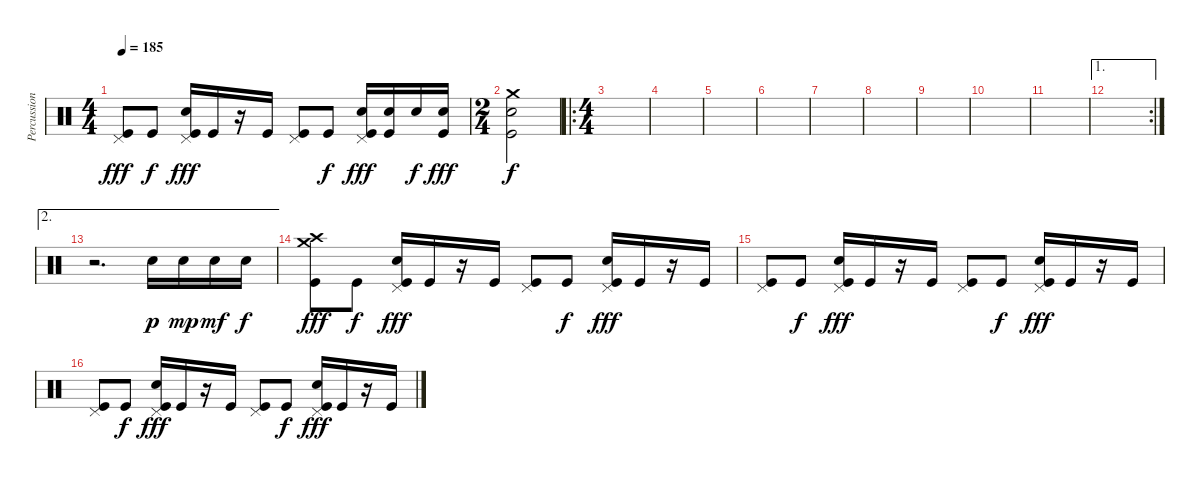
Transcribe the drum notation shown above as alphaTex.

\track ("Percussions" "Percussion") {instrument percussion}
\staff {score}
\articulation defaults
\ts (4 4)
\tempo 185
\clef neutral
\ks c
("Pedal Hi-Hat (hit)" "Kick (hit)").8{dy fff} "Kick (hit)".8{dy f} ("Pedal Hi-Hat (hit)" "Electric Snare (hit)" "Kick (hit)").16{dy fff} "Kick (hit)".16 r.16 "Kick (hit)".16 ("Pedal Hi-Hat (hit)" "Kick (hit)").8 "Kick (hit)".8{dy f} ("Pedal Hi-Hat (hit)" "Electric Snare (hit)" "Kick (hit)").16{dy fff} ("Electric Snare (hit)" "Kick (hit)").16 "Electric Snare (hit)".16{dy f} ("Electric Snare (hit)" "Kick (hit)").16{dy fff} |
\ts (2 4)
("Crash medium (hit)" "Electric Snare (hit)" "Kick (hit)").2{dy f} |
\ro
\ts (4 4)
\section ("" "")
|
|
|
|
|
|
|
|
|
\ae 1
\rc 2
|
\ae 2
r.2{d} "Electric Snare (hit)".16{dy p} "Electric Snare (hit)".16{dy mp} "Electric Snare (hit)".16{dy mf} "Electric Snare (hit)".16{dy f} |
\section ("" "")
("Crash medium (hit)" "Crash high (hit)" "Kick (hit)").8{dy fff} "Kick (hit)".8{dy f} ("Pedal Hi-Hat (hit)" "Electric Snare (hit)" "Kick (hit)").16{dy fff} "Kick (hit)".16 r.16 "Kick (hit)".16 ("Pedal Hi-Hat (hit)" "Kick (hit)").8 "Kick (hit)".8{dy f} ("Pedal Hi-Hat (hit)" "Electric Snare (hit)" "Kick (hit)").16{dy fff} "Kick (hit)".16 r.16 "Kick (hit)".16 |
("Pedal Hi-Hat (hit)" "Kick (hit)").8 "Kick (hit)".8{dy f} ("Pedal Hi-Hat (hit)" "Electric Snare (hit)" "Kick (hit)").16{dy fff} "Kick (hit)".16 r.16 "Kick (hit)".16 ("Pedal Hi-Hat (hit)" "Kick (hit)").8 "Kick (hit)".8{dy f} ("Pedal Hi-Hat (hit)" "Electric Snare (hit)" "Kick (hit)").16{dy fff} "Kick (hit)".16 r.16 "Kick (hit)".16 |
("Pedal Hi-Hat (hit)" "Kick (hit)").8 "Kick (hit)".8{dy f} ("Pedal Hi-Hat (hit)" "Electric Snare (hit)" "Kick (hit)").16{dy fff} "Kick (hit)".16 r.16 "Kick (hit)".16 ("Pedal Hi-Hat (hit)" "Kick (hit)").8 "Kick (hit)".8{dy f} ("Pedal Hi-Hat (hit)" "Electric Snare (hit)" "Kick (hit)").16{dy fff} "Kick (hit)".16 r.16 "Kick (hit)".16
